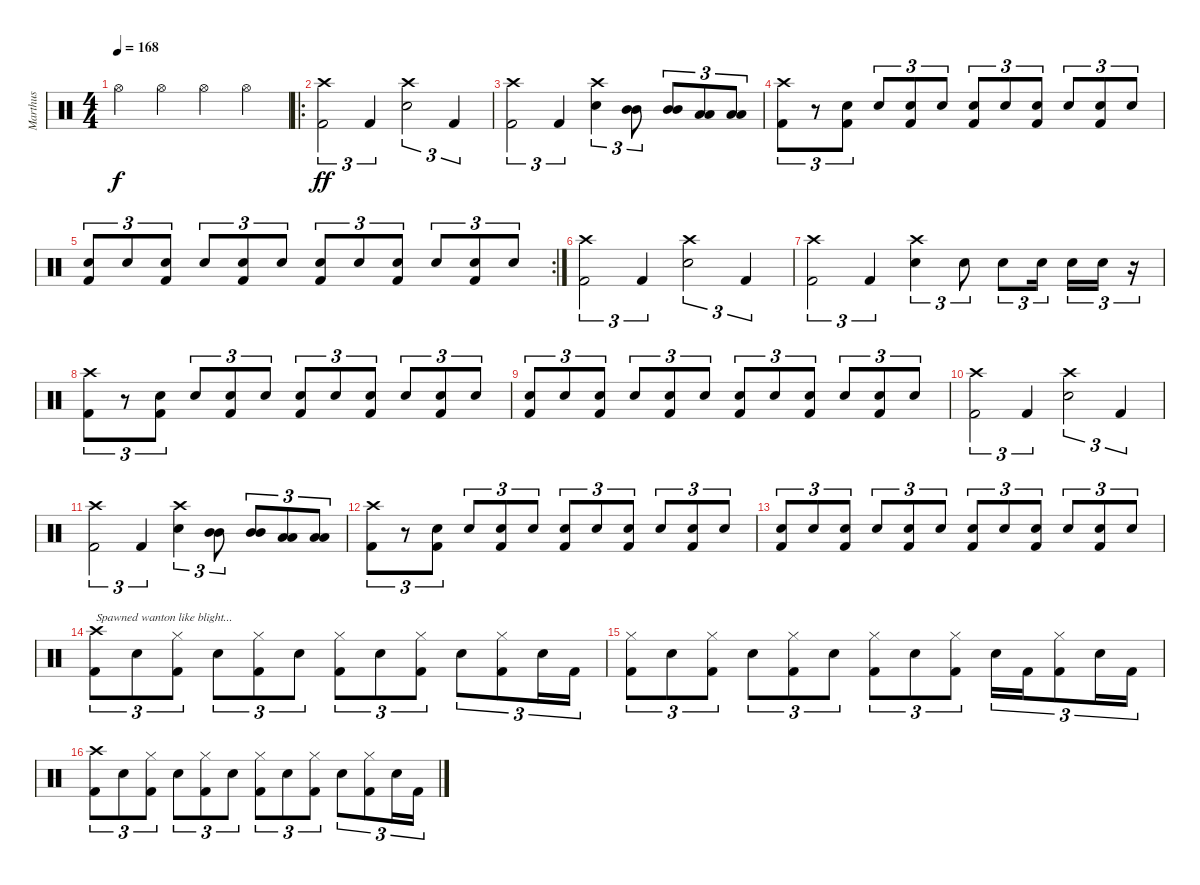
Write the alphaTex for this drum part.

\track ("Marthus" "Marthus") {instrument percussion}
\staff {score}
\articulation defaults
\ts (4 4)
\tempo 168
\clef neutral
\ks c "Hi-Hat (open)".4{dy f} "Hi-Hat (open)".4 "Hi-Hat (open)".4 "Hi-Hat (open)".4
|
\ro
("Crash high (hit)" "Kick (hit) 2").2{tu (3 2) dy ff balance 8} "Kick (hit) 2".4{tu (3 2)} ("Crash high (hit)" "Electric Snare (hit)").2{tu (3 2)} "Kick (hit) 2".4{tu (3 2)} |
("Crash high (hit)" "Kick (hit) 2").2{tu (3 2)} "Kick (hit) 2".4{tu (3 2)} ("Crash high (hit)" "Electric Snare (hit)").4{tu (3 2)} ("Mid Tom (hit)" "Mid Tom (hit)").8{tu (3 2)} ("Mid Tom (hit)" "Mid Tom (hit)").8{tu (3 2)} ("Low Tom (hit)" "Low Tom (hit)").8{tu (3 2)} ("Low Tom (hit)" "Low Tom (hit)").8{tu (3 2)} |
("Crash high (hit)" "Kick (hit) 2").8{tu (3 2)} r.8{tu (3 2)} ("Electric Snare (hit)" "Kick (hit) 2").8{tu (3 2)} "Electric Snare (hit)".8{tu (3 2)} ("Electric Snare (hit)" "Kick (hit) 2").8{tu (3 2)} "Electric Snare (hit)".8{tu (3 2)} ("Electric Snare (hit)" "Kick (hit) 2").8{tu (3 2)} "Electric Snare (hit)".8{tu (3 2)} ("Electric Snare (hit)" "Kick (hit) 2").8{tu (3 2)} "Electric Snare (hit)".8{tu (3 2)} ("Electric Snare (hit)" "Kick (hit) 2").8{tu (3 2)} "Electric Snare (hit)".8{tu (3 2)} |
\rc 2
("Electric Snare (hit)" "Kick (hit) 2").8{tu (3 2)} "Electric Snare (hit)".8{tu (3 2)} ("Electric Snare (hit)" "Kick (hit) 2").8{tu (3 2)} "Electric Snare (hit)".8{tu (3 2)} ("Electric Snare (hit)" "Kick (hit) 2").8{tu (3 2)} "Electric Snare (hit)".8{tu (3 2)} ("Electric Snare (hit)" "Kick (hit) 2").8{tu (3 2)} "Electric Snare (hit)".8{tu (3 2)} ("Electric Snare (hit)" "Kick (hit) 2").8{tu (3 2)} "Electric Snare (hit)".8{tu (3 2)} ("Electric Snare (hit)" "Kick (hit) 2").8{tu (3 2)} "Electric Snare (hit)".8{tu (3 2)} |
("Crash high (hit)" "Kick (hit) 2").2{tu (3 2)} "Kick (hit) 2".4{tu (3 2)} ("Crash high (hit)" "Electric Snare (hit)").2{tu (3 2)} "Kick (hit) 2".4{tu (3 2)} |
("Crash high (hit)" "Kick (hit) 2").2{tu (3 2)} "Kick (hit) 2".4{tu (3 2)} ("Crash high (hit)" "Electric Snare (hit)").4{tu (3 2)} "Electric Snare (hit)".8{tu (3 2)} "Electric Snare (hit)".8{tu (3 2)} "Electric Snare (hit)".16{tu (3 2) beam splitsecondary} "Electric Snare (hit)".16{tu (3 2)} "Electric Snare (hit)".16{tu (3 2)} r.16{tu (3 2)} |
("Crash high (hit)" "Kick (hit) 2").8{tu (3 2)} r.8{tu (3 2)} ("Electric Snare (hit)" "Kick (hit) 2").8{tu (3 2)} "Electric Snare (hit)".8{tu (3 2)} ("Electric Snare (hit)" "Kick (hit) 2").8{tu (3 2)} "Electric Snare (hit)".8{tu (3 2)} ("Electric Snare (hit)" "Kick (hit) 2").8{tu (3 2)} "Electric Snare (hit)".8{tu (3 2)} ("Electric Snare (hit)" "Kick (hit) 2").8{tu (3 2)} "Electric Snare (hit)".8{tu (3 2)} ("Electric Snare (hit)" "Kick (hit) 2").8{tu (3 2)} "Electric Snare (hit)".8{tu (3 2)} |
("Electric Snare (hit)" "Kick (hit) 2").8{tu (3 2)} "Electric Snare (hit)".8{tu (3 2)} ("Electric Snare (hit)" "Kick (hit) 2").8{tu (3 2)} "Electric Snare (hit)".8{tu (3 2)} ("Electric Snare (hit)" "Kick (hit) 2").8{tu (3 2)} "Electric Snare (hit)".8{tu (3 2)} ("Electric Snare (hit)" "Kick (hit) 2").8{tu (3 2)} "Electric Snare (hit)".8{tu (3 2)} ("Electric Snare (hit)" "Kick (hit) 2").8{tu (3 2)} "Electric Snare (hit)".8{tu (3 2)} ("Electric Snare (hit)" "Kick (hit) 2").8{tu (3 2)} "Electric Snare (hit)".8{tu (3 2)} |
("Crash high (hit)" "Kick (hit) 2").2{tu (3 2)} "Kick (hit) 2".4{tu (3 2)} ("Crash high (hit)" "Electric Snare (hit)").2{tu (3 2)} "Kick (hit) 2".4{tu (3 2)} |
("Crash high (hit)" "Kick (hit) 2").2{tu (3 2)} "Kick (hit) 2".4{tu (3 2)} ("Crash high (hit)" "Electric Snare (hit)").4{tu (3 2)} ("Mid Tom (hit)" "Mid Tom (hit)").8{tu (3 2)} ("Mid Tom (hit)" "Mid Tom (hit)").8{tu (3 2)} ("Low Tom (hit)" "Low Tom (hit)").8{tu (3 2)} ("Low Tom (hit)" "Low Tom (hit)").8{tu (3 2)} |
("Crash high (hit)" "Kick (hit) 2").8{tu (3 2)} r.8{tu (3 2)} ("Electric Snare (hit)" "Kick (hit) 2").8{tu (3 2)} "Electric Snare (hit)".8{tu (3 2)} ("Electric Snare (hit)" "Kick (hit) 2").8{tu (3 2)} "Electric Snare (hit)".8{tu (3 2)} ("Electric Snare (hit)" "Kick (hit) 2").8{tu (3 2)} "Electric Snare (hit)".8{tu (3 2)} ("Electric Snare (hit)" "Kick (hit) 2").8{tu (3 2)} "Electric Snare (hit)".8{tu (3 2)} ("Electric Snare (hit)" "Kick (hit) 2").8{tu (3 2)} "Electric Snare (hit)".8{tu (3 2)} |
("Electric Snare (hit)" "Kick (hit) 2").8{tu (3 2)} "Electric Snare (hit)".8{tu (3 2)} ("Electric Snare (hit)" "Kick (hit) 2").8{tu (3 2)} "Electric Snare (hit)".8{tu (3 2)} ("Electric Snare (hit)" "Kick (hit) 2").8{tu (3 2)} "Electric Snare (hit)".8{tu (3 2)} ("Electric Snare (hit)" "Kick (hit) 2").8{tu (3 2)} "Electric Snare (hit)".8{tu (3 2)} ("Electric Snare (hit)" "Kick (hit) 2").8{tu (3 2)} "Electric Snare (hit)".8{tu (3 2)} ("Electric Snare (hit)" "Kick (hit) 2").8{tu (3 2)} "Electric Snare (hit)".8{tu (3 2)} |
("Crash high (hit)" "Kick (hit) 2").8{tu (3 2) txt "Spawned wanton like blight..."} "Electric Snare (hit)".8{tu (3 2)} ("Hi-Hat (closed)" "Kick (hit) 2").8{tu (3 2)} "Electric Snare (hit)".8{tu (3 2)} ("Hi-Hat (closed)" "Kick (hit) 2").8{tu (3 2)} "Electric Snare (hit)".8{tu (3 2)} ("Hi-Hat (closed)" "Kick (hit) 2").8{tu (3 2)} "Electric Snare (hit)".8{tu (3 2)} ("Hi-Hat (closed)" "Kick (hit) 2").8{tu (3 2)} "Electric Snare (hit)".8{tu (3 2)} ("Hi-Hat (closed)" "Kick (hit) 2").8{tu (3 2)} "Electric Snare (hit)".16{tu (3 2)} "Kick (hit) 2".16{tu (3 2)} |
("Hi-Hat (closed)" "Kick (hit) 2").8{tu (3 2)} "Electric Snare (hit)".8{tu (3 2)} ("Hi-Hat (closed)" "Kick (hit) 2").8{tu (3 2)} "Electric Snare (hit)".8{tu (3 2)} ("Hi-Hat (closed)" "Kick (hit) 2").8{tu (3 2)} "Electric Snare (hit)".8{tu (3 2)} ("Hi-Hat (closed)" "Kick (hit) 2").8{tu (3 2)} "Electric Snare (hit)".8{tu (3 2)} ("Hi-Hat (closed)" "Kick (hit) 2").8{tu (3 2)} "Electric Snare (hit)".16{tu (3 2)} "Kick (hit) 2".16{tu (3 2)} ("Hi-Hat (closed)" "Kick (hit) 2").8{tu (3 2)} "Electric Snare (hit)".16{tu (3 2)} "Kick (hit) 2".16{tu (3 2)} |
("Crash high (hit)" "Kick (hit) 2").8{tu (3 2)} "Electric Snare (hit)".8{tu (3 2)} ("Hi-Hat (closed)" "Kick (hit) 2").8{tu (3 2)} "Electric Snare (hit)".8{tu (3 2)} ("Hi-Hat (closed)" "Kick (hit) 2").8{tu (3 2)} "Electric Snare (hit)".8{tu (3 2)} ("Hi-Hat (closed)" "Kick (hit) 2").8{tu (3 2)} "Electric Snare (hit)".8{tu (3 2)} ("Hi-Hat (closed)" "Kick (hit) 2").8{tu (3 2)} "Electric Snare (hit)".8{tu (3 2)} ("Hi-Hat (closed)" "Kick (hit) 2").8{tu (3 2)} "Electric Snare (hit)".16{tu (3 2)} "Kick (hit) 2".16{tu (3 2)}
